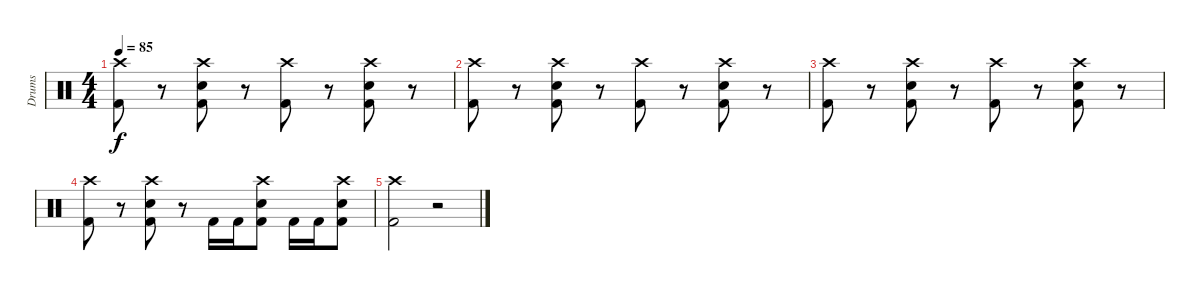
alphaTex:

\track ("Drums" "Drums") {instrument percussion}
\staff {score}
\articulation defaults
\ts (4 4)
\tempo 85
\clef neutral
\ks c
("Crash high (hit)" "Kick (hit) 2").8{dy f} r.8 ("Crash high (hit)" "Electric Snare (hit)" "Kick (hit) 2").8 r.8 ("Crash high (hit)" "Kick (hit) 2").8 r.8 ("Crash high (hit)" "Electric Snare (hit)" "Kick (hit) 2").8 r.8 |
("Crash high (hit)" "Kick (hit) 2").8 r.8 ("Crash high (hit)" "Electric Snare (hit)" "Kick (hit) 2").8 r.8 ("Crash high (hit)" "Kick (hit) 2").8 r.8 ("Crash high (hit)" "Electric Snare (hit)" "Kick (hit) 2").8 r.8 |
("Crash high (hit)" "Kick (hit) 2").8 r.8 ("Crash high (hit)" "Electric Snare (hit)" "Kick (hit) 2").8 r.8 ("Crash high (hit)" "Kick (hit) 2").8 r.8 ("Crash high (hit)" "Electric Snare (hit)" "Kick (hit) 2").8 r.8 |
("Crash high (hit)" "Kick (hit) 2").8 r.8 ("Crash high (hit)" "Electric Snare (hit)" "Kick (hit) 2").8 r.8 "Kick (hit) 2".16 "Kick (hit) 2".16 ("Crash high (hit)" "Electric Snare (hit)" "Kick (hit) 2").8 "Kick (hit) 2".16 "Kick (hit) 2".16 ("Crash high (hit)" "Electric Snare (hit)" "Kick (hit) 2").8 |
("Crash high (hit)" "Kick (hit) 2").2 r.2
